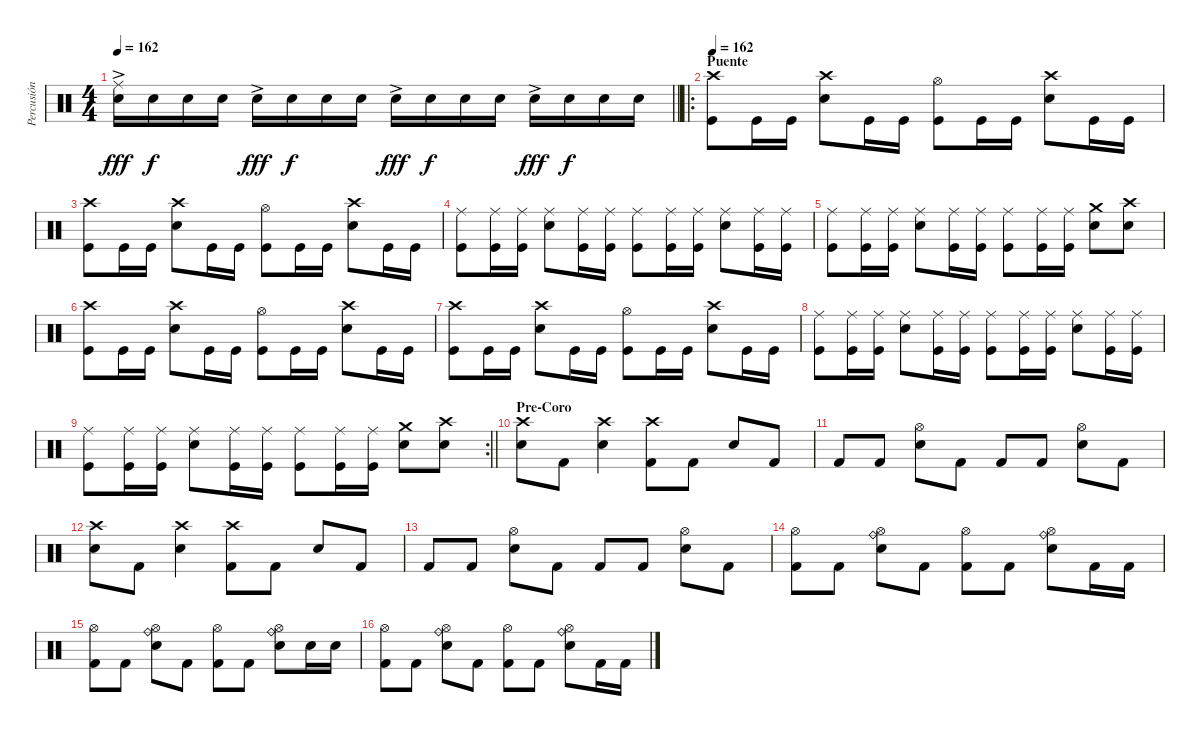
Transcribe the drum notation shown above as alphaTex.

\track ("Percusión" "Percusión") {instrument percussion}
\staff {score}
\articulation defaults
\ts (4 4)
\tempo 162
\clef neutral
\barLineRight lightlight
\ks c
("Ride (middle)" "Electric Snare (hit)"{ac}).16{dy fff} "Electric Snare (hit)".16{dy f} "Electric Snare (hit)".16 "Electric Snare (hit)".16 "Electric Snare (hit)"{ac}.16{dy fff} "Electric Snare (hit)".16{dy f} "Electric Snare (hit)".16 "Electric Snare (hit)".16 "Electric Snare (hit)"{ac}.16{dy fff} "Electric Snare (hit)".16{dy f} "Electric Snare (hit)".16 "Electric Snare (hit)".16 "Electric Snare (hit)"{ac}.16{dy fff} "Electric Snare (hit)".16{dy f} "Electric Snare (hit)".16 "Electric Snare (hit)".16 |
\ro
\section ("" "Puente")
\tempo 162
("Crash high (hit)" "Kick (hit)").8 "Kick (hit)".16 "Kick (hit)".16 ("Crash high (hit)" "Electric Snare (hit)").8 "Kick (hit)".16 "Kick (hit)".16 ("Hi-Hat (open)" "Kick (hit)").8 "Kick (hit)".16 "Kick (hit)".16 ("Crash high (hit)" "Electric Snare (hit)").8 "Kick (hit)".16 "Kick (hit)".16 |
("Crash high (hit)" "Kick (hit)").8 "Kick (hit)".16 "Kick (hit)".16 ("Crash high (hit)" "Electric Snare (hit)").8 "Kick (hit)".16 "Kick (hit)".16 ("Hi-Hat (open)" "Kick (hit)").8 "Kick (hit)".16 "Kick (hit)".16 ("Crash high (hit)" "Electric Snare (hit)").8 "Kick (hit)".16 "Kick (hit)".16 |
("Ride (middle)" "Kick (hit)").8 ("Ride (middle)" "Kick (hit)").16 ("Ride (middle)" "Kick (hit)").16 ("Ride (middle)" "Electric Snare (hit)").8 ("Ride (middle)" "Kick (hit)").16 ("Ride (middle)" "Kick (hit)").16 ("Ride (middle)" "Kick (hit)").8 ("Ride (middle)" "Kick (hit)").16 ("Ride (middle)" "Kick (hit)").16 ("Ride (middle)" "Electric Snare (hit)").8 ("Ride (middle)" "Kick (hit)").16 ("Ride (middle)" "Kick (hit)").16 |
("Ride (middle)" "Kick (hit)").8 ("Ride (middle)" "Kick (hit)").16 ("Ride (middle)" "Kick (hit)").16 ("Ride (middle)" "Electric Snare (hit)").8 ("Ride (middle)" "Kick (hit)").16 ("Ride (middle)" "Kick (hit)").16 ("Ride (middle)" "Kick (hit)").8 ("Ride (middle)" "Kick (hit)").16 ("Ride (middle)" "Kick (hit)").16 ("Crash medium (hit)" "Electric Snare (hit)").8 ("Crash high (hit)" "Electric Snare (hit)").8 |
("Crash high (hit)" "Kick (hit)").8 "Kick (hit)".16 "Kick (hit)".16 ("Crash high (hit)" "Electric Snare (hit)").8 "Kick (hit)".16 "Kick (hit)".16 ("Hi-Hat (open)" "Kick (hit)").8 "Kick (hit)".16 "Kick (hit)".16 ("Crash high (hit)" "Electric Snare (hit)").8 "Kick (hit)".16 "Kick (hit)".16 |
("Crash high (hit)" "Kick (hit)").8 "Kick (hit)".16 "Kick (hit)".16 ("Crash high (hit)" "Electric Snare (hit)").8 "Kick (hit)".16 "Kick (hit)".16 ("Hi-Hat (open)" "Kick (hit)").8 "Kick (hit)".16 "Kick (hit)".16 ("Crash high (hit)" "Electric Snare (hit)").8 "Kick (hit)".16 "Kick (hit)".16 |
("Ride (middle)" "Kick (hit)").8 ("Ride (middle)" "Kick (hit)").16 ("Ride (middle)" "Kick (hit)").16 ("Ride (middle)" "Electric Snare (hit)").8 ("Ride (middle)" "Kick (hit)").16 ("Ride (middle)" "Kick (hit)").16 ("Ride (middle)" "Kick (hit)").8 ("Ride (middle)" "Kick (hit)").16 ("Ride (middle)" "Kick (hit)").16 ("Ride (middle)" "Electric Snare (hit)").8 ("Ride (middle)" "Kick (hit)").16 ("Ride (middle)" "Kick (hit)").16 |
\rc 2
\barLineRight lightlight
("Ride (middle)" "Kick (hit)").8 ("Ride (middle)" "Kick (hit)").16 ("Ride (middle)" "Kick (hit)").16 ("Ride (middle)" "Electric Snare (hit)").8 ("Ride (middle)" "Kick (hit)").16 ("Ride (middle)" "Kick (hit)").16 ("Ride (middle)" "Kick (hit)").8 ("Ride (middle)" "Kick (hit)").16 ("Ride (middle)" "Kick (hit)").16 ("Crash medium (hit)" "Electric Snare (hit)").8 ("Crash high (hit)" "Electric Snare (hit)").8 |
\section ("" "Pre-Coro")
("Crash high (hit)" "Electric Snare (hit)").8 "Kick (hit) 2".8 ("Crash high (hit)" "Electric Snare (hit)").4 ("Crash high (hit)" "Kick (hit) 2").8 "Kick (hit) 2".8 "Electric Snare (hit)".8 "Kick (hit) 2".8 |
"Kick (hit) 2".8 "Kick (hit) 2".8 ("Hi-Hat (open)" "Electric Snare (hit)").8 "Kick (hit) 2".8 "Kick (hit) 2".8 "Kick (hit) 2".8 ("Hi-Hat (open)" "Electric Snare (hit)").8 "Kick (hit) 2".8 |
("Crash high (hit)" "Electric Snare (hit)").8 "Kick (hit) 2".8 ("Crash high (hit)" "Electric Snare (hit)").4 ("Crash high (hit)" "Kick (hit) 2").8 "Kick (hit) 2".8 "Electric Snare (hit)".8 "Kick (hit) 2".8 |
"Kick (hit) 2".8 "Kick (hit) 2".8 ("Hi-Hat (open)" "Electric Snare (hit)").8 "Kick (hit) 2".8 "Kick (hit) 2".8 "Kick (hit) 2".8 ("Hi-Hat (open)" "Electric Snare (hit)").8 "Kick (hit) 2".8 |
("Hi-Hat (open)" "Kick (hit) 2").8 "Kick (hit) 2".8 ("Ride (bell)" "Hi-Hat (open)" "Electric Snare (hit)").8 "Kick (hit) 2".8 ("Hi-Hat (open)" "Kick (hit) 2").8 "Kick (hit) 2".8 ("Ride (bell)" "Hi-Hat (open)" "Electric Snare (hit)").8 "Kick (hit) 2".16 "Kick (hit) 2".16 |
("Hi-Hat (open)" "Kick (hit) 2").8 "Kick (hit) 2".8 ("Ride (bell)" "Hi-Hat (open)" "Electric Snare (hit)").8 "Kick (hit) 2".8 ("Hi-Hat (open)" "Kick (hit) 2").8 "Kick (hit) 2".8 ("Ride (bell)" "Hi-Hat (open)" "Electric Snare (hit)").8 "Electric Snare (hit)".16 "Electric Snare (hit)".16 |
("Hi-Hat (open)" "Kick (hit) 2").8 "Kick (hit) 2".8 ("Ride (bell)" "Hi-Hat (open)" "Electric Snare (hit)").8 "Kick (hit) 2".8 ("Hi-Hat (open)" "Kick (hit) 2").8 "Kick (hit) 2".8 ("Ride (bell)" "Hi-Hat (open)" "Electric Snare (hit)").8 "Kick (hit) 2".16 "Kick (hit) 2".16
